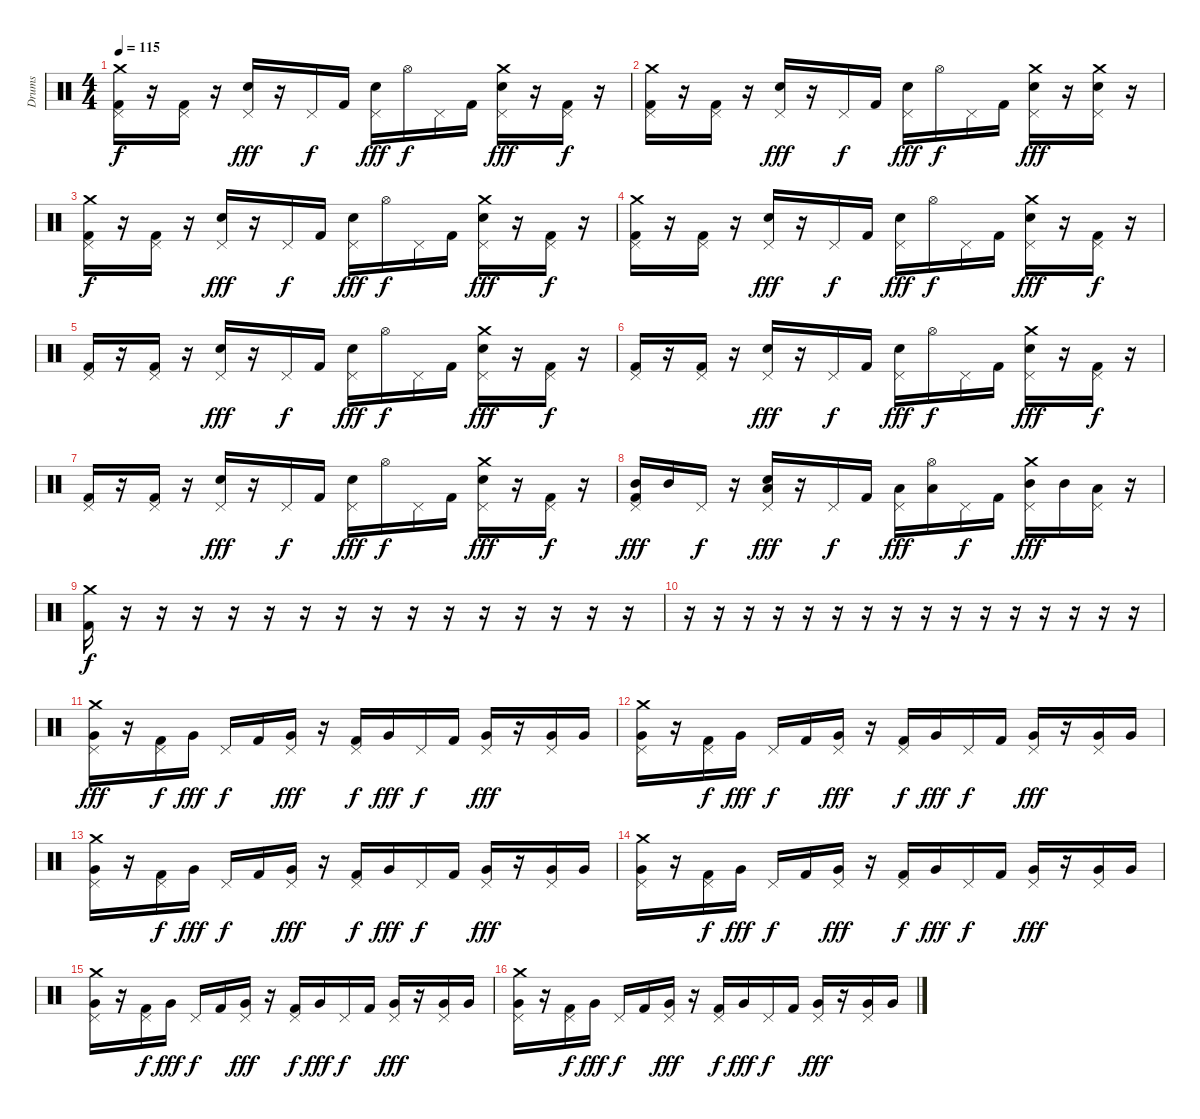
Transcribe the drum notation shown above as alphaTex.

\track ("Drums" "Drums") {instrument percussion}
\staff {score}
\articulation defaults
\ts (4 4)
\tempo 115
\clef neutral
\ks c
("Crash medium (hit)" "Pedal Hi-Hat (hit)" "Kick (hit) 2").16{dy f} r.16 ("Pedal Hi-Hat (hit)" "Kick (hit) 2").16 r.16 ("Pedal Hi-Hat (hit)" "Snare (hit) 2").16{dy fff} r.16 "Pedal Hi-Hat (hit)".16{dy f} "Kick (hit) 2".16 ("Pedal Hi-Hat (hit)" "Snare (hit) 2").16{dy fff} "Hi-Hat (open)".16{dy f} "Pedal Hi-Hat (hit)".16 "Kick (hit) 2".16 ("Crash medium (hit)" "Pedal Hi-Hat (hit)" "Snare (hit) 2").16{dy fff} r.16 ("Pedal Hi-Hat (hit)" "Kick (hit) 2").16{dy f} r.16 |
("Crash medium (hit)" "Pedal Hi-Hat (hit)" "Kick (hit) 2").16 r.16 ("Pedal Hi-Hat (hit)" "Kick (hit) 2").16 r.16 ("Pedal Hi-Hat (hit)" "Snare (hit) 2").16{dy fff} r.16 "Pedal Hi-Hat (hit)".16{dy f} "Kick (hit) 2".16 ("Pedal Hi-Hat (hit)" "Snare (hit) 2").16{dy fff} "Hi-Hat (open)".16{dy f} "Pedal Hi-Hat (hit)".16 "Kick (hit) 2".16 ("Crash medium (hit)" "Pedal Hi-Hat (hit)" "Snare (hit) 2").16{dy fff} r.16 ("Crash medium (hit)" "Pedal Hi-Hat (hit)" "Snare (hit) 2").16 r.16 |
("Crash medium (hit)" "Pedal Hi-Hat (hit)" "Kick (hit) 2").16{dy f} r.16 ("Pedal Hi-Hat (hit)" "Kick (hit) 2").16 r.16 ("Pedal Hi-Hat (hit)" "Snare (hit) 2").16{dy fff} r.16 "Pedal Hi-Hat (hit)".16{dy f} "Kick (hit) 2".16 ("Pedal Hi-Hat (hit)" "Snare (hit) 2").16{dy fff} "Hi-Hat (open)".16{dy f} "Pedal Hi-Hat (hit)".16 "Kick (hit) 2".16 ("Crash medium (hit)" "Pedal Hi-Hat (hit)" "Snare (hit) 2").16{dy fff} r.16 ("Pedal Hi-Hat (hit)" "Kick (hit) 2").16{dy f} r.16 |
("Crash medium (hit)" "Pedal Hi-Hat (hit)" "Kick (hit) 2").16 r.16 ("Pedal Hi-Hat (hit)" "Kick (hit) 2").16 r.16 ("Pedal Hi-Hat (hit)" "Snare (hit) 2").16{dy fff} r.16 "Pedal Hi-Hat (hit)".16{dy f} "Kick (hit) 2".16 ("Pedal Hi-Hat (hit)" "Snare (hit) 2").16{dy fff} "Hi-Hat (open)".16{dy f} "Pedal Hi-Hat (hit)".16 "Kick (hit) 2".16 ("Crash medium (hit)" "Pedal Hi-Hat (hit)" "Snare (hit) 2").16{dy fff} r.16 ("Pedal Hi-Hat (hit)" "Kick (hit) 2").16{dy f} r.16 |
("Pedal Hi-Hat (hit)" "Kick (hit) 2").16 r.16 ("Pedal Hi-Hat (hit)" "Kick (hit) 2").16 r.16 ("Pedal Hi-Hat (hit)" "Snare (hit) 2").16{dy fff} r.16 "Pedal Hi-Hat (hit)".16{dy f} "Kick (hit) 2".16 ("Pedal Hi-Hat (hit)" "Snare (hit) 2").16{dy fff} "Hi-Hat (open)".16{dy f} "Pedal Hi-Hat (hit)".16 "Kick (hit) 2".16 ("Crash medium (hit)" "Pedal Hi-Hat (hit)" "Snare (hit) 2").16{dy fff} r.16 ("Pedal Hi-Hat (hit)" "Kick (hit) 2").16{dy f} r.16 |
("Pedal Hi-Hat (hit)" "Kick (hit) 2").16 r.16 ("Pedal Hi-Hat (hit)" "Kick (hit) 2").16 r.16 ("Pedal Hi-Hat (hit)" "Snare (hit) 2").16{dy fff} r.16 "Pedal Hi-Hat (hit)".16{dy f} "Kick (hit) 2".16 ("Pedal Hi-Hat (hit)" "Snare (hit) 2").16{dy fff} "Hi-Hat (open)".16{dy f} "Pedal Hi-Hat (hit)".16 "Kick (hit) 2".16 ("Crash medium (hit)" "Pedal Hi-Hat (hit)" "Snare (hit) 2").16{dy fff} r.16 ("Pedal Hi-Hat (hit)" "Kick (hit) 2").16{dy f} r.16 |
("Pedal Hi-Hat (hit)" "Kick (hit) 2").16 r.16 ("Pedal Hi-Hat (hit)" "Kick (hit) 2").16 r.16 ("Pedal Hi-Hat (hit)" "Snare (hit) 2").16{dy fff} r.16 "Pedal Hi-Hat (hit)".16{dy f} "Kick (hit) 2".16 ("Pedal Hi-Hat (hit)" "Snare (hit) 2").16{dy fff} "Hi-Hat (open)".16{dy f} "Pedal Hi-Hat (hit)".16 "Kick (hit) 2".16 ("Crash medium (hit)" "Pedal Hi-Hat (hit)" "Snare (hit) 2").16{dy fff} r.16 ("Pedal Hi-Hat (hit)" "Kick (hit) 2").16{dy f} r.16 |
("Pedal Hi-Hat (hit)" "Mid Tom (hit)" "Kick (hit) 2").16{dy fff} "Mid Tom (hit)".16 "Pedal Hi-Hat (hit)".16{dy f} r.16 ("Pedal Hi-Hat (hit)" "Low Tom (hit)" "Snare (hit) 2").16{dy fff} r.16 "Pedal Hi-Hat (hit)".16{dy f} "Kick (hit) 2".16 ("Pedal Hi-Hat (hit)" "Low Tom (hit)").16{dy fff} ("Hi-Hat (open)" "Low Tom (hit)").16 "Pedal Hi-Hat (hit)".16{dy f} "Kick (hit) 2".16 ("Crash medium (hit)" "Pedal Hi-Hat (hit)" "Mid Tom (hit)").16{dy fff} "Mid Tom (hit)".16 ("Pedal Hi-Hat (hit)" "Low Tom (hit)").16 r.16 |
("Crash medium (hit)" "Kick (hit) 2").16{dy f} r.16 r.16 r.16 r.16 r.16 r.16 r.16 r.16 r.16 r.16 r.16 r.16 r.16 r.16 r.16 |
r.16 r.16 r.16 r.16 r.16 r.16 r.16 r.16 r.16 r.16 r.16 r.16 r.16 r.16 r.16 r.16 |
("Crash medium (hit)" "Pedal Hi-Hat (hit)" "Very Low Tom (hit)").16{dy fff} r.16 ("Pedal Hi-Hat (hit)" "Kick (hit) 2").16{dy f} "Very Low Tom (hit)".16{dy fff} "Pedal Hi-Hat (hit)".16{dy f} "Kick (hit) 2".16 ("Pedal Hi-Hat (hit)" "Very Low Tom (hit)").16{dy fff} r.16 ("Pedal Hi-Hat (hit)" "Kick (hit) 2").16{dy f} "Very Low Tom (hit)".16{dy fff} "Pedal Hi-Hat (hit)".16{dy f} "Kick (hit) 2".16 ("Pedal Hi-Hat (hit)" "Very Low Tom (hit)").16{dy fff} r.16 ("Pedal Hi-Hat (hit)" "Very Low Tom (hit)").16 "Very Low Tom (hit)".16 |
("Crash medium (hit)" "Pedal Hi-Hat (hit)" "Very Low Tom (hit)").16 r.16 ("Pedal Hi-Hat (hit)" "Kick (hit) 2").16{dy f} "Very Low Tom (hit)".16{dy fff} "Pedal Hi-Hat (hit)".16{dy f} "Kick (hit) 2".16 ("Pedal Hi-Hat (hit)" "Very Low Tom (hit)").16{dy fff} r.16 ("Pedal Hi-Hat (hit)" "Kick (hit) 2").16{dy f} "Very Low Tom (hit)".16{dy fff} "Pedal Hi-Hat (hit)".16{dy f} "Kick (hit) 2".16 ("Pedal Hi-Hat (hit)" "Very Low Tom (hit)").16{dy fff} r.16 ("Pedal Hi-Hat (hit)" "Very Low Tom (hit)").16 "Very Low Tom (hit)".16 |
("Crash medium (hit)" "Pedal Hi-Hat (hit)" "Very Low Tom (hit)").16 r.16 ("Pedal Hi-Hat (hit)" "Kick (hit) 2").16{dy f} "Very Low Tom (hit)".16{dy fff} "Pedal Hi-Hat (hit)".16{dy f} "Kick (hit) 2".16 ("Pedal Hi-Hat (hit)" "Very Low Tom (hit)").16{dy fff} r.16 ("Pedal Hi-Hat (hit)" "Kick (hit) 2").16{dy f} "Very Low Tom (hit)".16{dy fff} "Pedal Hi-Hat (hit)".16{dy f} "Kick (hit) 2".16 ("Pedal Hi-Hat (hit)" "Very Low Tom (hit)").16{dy fff} r.16 ("Pedal Hi-Hat (hit)" "Very Low Tom (hit)").16 "Very Low Tom (hit)".16 |
("Crash medium (hit)" "Pedal Hi-Hat (hit)" "Very Low Tom (hit)").16 r.16 ("Pedal Hi-Hat (hit)" "Kick (hit) 2").16{dy f} "Very Low Tom (hit)".16{dy fff} "Pedal Hi-Hat (hit)".16{dy f} "Kick (hit) 2".16 ("Pedal Hi-Hat (hit)" "Very Low Tom (hit)").16{dy fff} r.16 ("Pedal Hi-Hat (hit)" "Kick (hit) 2").16{dy f} "Very Low Tom (hit)".16{dy fff} "Pedal Hi-Hat (hit)".16{dy f} "Kick (hit) 2".16 ("Pedal Hi-Hat (hit)" "Very Low Tom (hit)").16{dy fff} r.16 ("Pedal Hi-Hat (hit)" "Very Low Tom (hit)").16 "Very Low Tom (hit)".16 |
("Crash medium (hit)" "Pedal Hi-Hat (hit)" "Very Low Tom (hit)").16 r.16 ("Pedal Hi-Hat (hit)" "Kick (hit) 2").16{dy f} "Very Low Tom (hit)".16{dy fff} "Pedal Hi-Hat (hit)".16{dy f} "Kick (hit) 2".16 ("Pedal Hi-Hat (hit)" "Very Low Tom (hit)").16{dy fff} r.16 ("Pedal Hi-Hat (hit)" "Kick (hit) 2").16{dy f} "Very Low Tom (hit)".16{dy fff} "Pedal Hi-Hat (hit)".16{dy f} "Kick (hit) 2".16 ("Pedal Hi-Hat (hit)" "Very Low Tom (hit)").16{dy fff} r.16 ("Pedal Hi-Hat (hit)" "Very Low Tom (hit)").16 "Very Low Tom (hit)".16 |
("Crash medium (hit)" "Pedal Hi-Hat (hit)" "Very Low Tom (hit)").16 r.16 ("Pedal Hi-Hat (hit)" "Kick (hit) 2").16{dy f} "Very Low Tom (hit)".16{dy fff} "Pedal Hi-Hat (hit)".16{dy f} "Kick (hit) 2".16 ("Pedal Hi-Hat (hit)" "Very Low Tom (hit)").16{dy fff} r.16 ("Pedal Hi-Hat (hit)" "Kick (hit) 2").16{dy f} "Very Low Tom (hit)".16{dy fff} "Pedal Hi-Hat (hit)".16{dy f} "Kick (hit) 2".16 ("Pedal Hi-Hat (hit)" "Very Low Tom (hit)").16{dy fff} r.16 ("Pedal Hi-Hat (hit)" "Very Low Tom (hit)").16 "Very Low Tom (hit)".16
